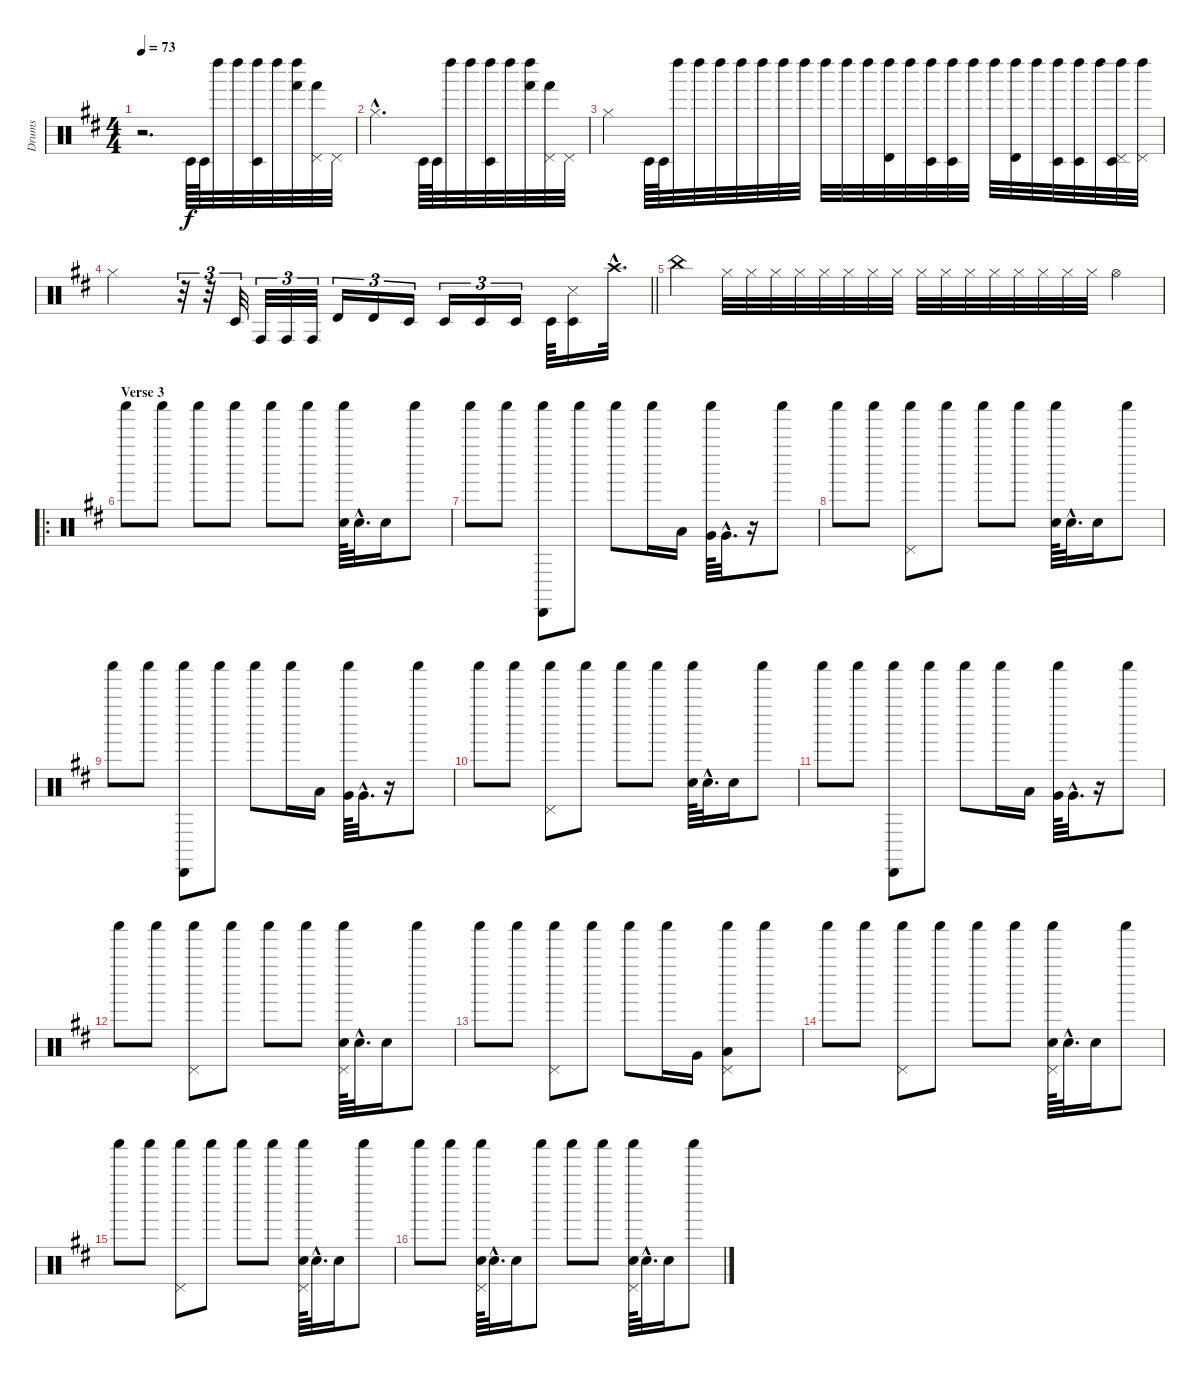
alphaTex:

\track ("Drums" "Drums") {instrument percussion}
\staff {score}
\articulation defaults
\ts (4 4)
\tempo 73
\clef neutral
\ks d
r.2{d dy f} "Timbale low (hit)".64 "Timbale low (hit)".64 "Left Maraca (hit)".32 "Left Maraca (hit)".32 ("Timbale low (hit)" "Left Maraca (hit)").32 "Left Maraca (hit)".32 ("Hand (hit)" "Left Maraca (hit)").32 ("Pedal Hi-Hat (hit)" "Hand (hit)").32 "Pedal Hi-Hat (hit)".32 |
"Hi-Hat (closed)"{hac}.2{d} "Timbale low (hit)".64 "Timbale low (hit)".64 "Left Maraca (hit)".32 "Left Maraca (hit)".32 ("Timbale low (hit)" "Left Maraca (hit)").32 "Left Maraca (hit)".32 ("Hand (hit)" "Left Maraca (hit)").32 ("Pedal Hi-Hat (hit)" "Hand (hit)").32 "Pedal Hi-Hat (hit)".32 |
"Hi-Hat (closed)".4 "Timbale low (hit)".64 "Timbale low (hit)".64 "Left Maraca (hit)".32 "Left Maraca (hit)".32 "Left Maraca (hit)".32 "Left Maraca (hit)".32 "Left Maraca (hit)".32 "Left Maraca (hit)".32 "Left Maraca (hit)".32 "Left Maraca (hit)".32 "Left Maraca (hit)".32 "Left Maraca (hit)".32 ("Timbale high (hit)" "Left Maraca (hit)").32 "Left Maraca (hit)".32 ("Timbale low (hit)" "Left Maraca (hit)").32 ("Timbale low (hit)" "Left Maraca (hit)").32 "Left Maraca (hit)".32 "Left Maraca (hit)".32 ("Timbale high (hit)" "Left Maraca (hit)").32 "Left Maraca (hit)".32 ("Timbale low (hit)" "Left Maraca (hit)").32 ("Timbale low (hit)" "Left Maraca (hit)").32 "Left Maraca (hit)".32 ("Pedal Hi-Hat (hit)" "Timbale low (hit)" "Left Maraca (hit)").32 ("Pedal Hi-Hat (hit)" "Left Maraca (hit)").32 |
\barLineRight lightlight "Hi-Hat (closed)".2
r.32{tu (3 2)} r.32{tu (3 2)} "Timbale low (hit)".32{tu (3 2)} "Conga high (hit)".32{tu (3 2)} "Conga high (hit)".32{tu (3 2)} "Conga high (hit)".32{tu (3 2)} "Timbale high (hit)".16{tu (3 2)} "Timbale high (hit)".16{tu (3 2)} "Timbale low (hit)".16{tu (3 2)} "Timbale low (hit)".16{tu (3 2)} "Timbale low (hit)".16{tu (3 2)} "Timbale low (hit)".16{tu (3 2)} "Timbale low (hit)".64 ("Metronome (hit)" "Timbale low (hit)").16 "Crash high (hit)"{hac}.32{d} |
"China (hit)".4 "Hi-Hat (closed)".32{volume 6} "Hi-Hat (closed)".32{volume 12} "Hi-Hat (closed)".32 "Hi-Hat (closed)".32 "Hi-Hat (closed)".32 "Hi-Hat (closed)".32 "Hi-Hat (closed)".32 "Hi-Hat (closed)".32 "Hi-Hat (closed)".32 "Hi-Hat (closed)".32 "Hi-Hat (closed)".32 "Hi-Hat (closed)".32 "Hi-Hat (closed)".32 "Hi-Hat (closed)".32 "Hi-Hat (closed)".32 "Hi-Hat (closed)".32 "Hi-Hat (open)".4{volume 14} |
\ro
\section ("" "Verse 3")
"Shaker (hit)".8 "Shaker (hit)".8 "Shaker (hit)".8 "Shaker (hit)".8 "Shaker (hit)".8 "Shaker (hit)".8 ("Shaker (hit)" "Electric Snare (hit)").64 "Electric Snare (hit)"{hac}.32{d} "Electric Snare (hit)".16 "Shaker (hit)".8 |
"Shaker (hit)".8 "Shaker (hit)".8 ("Cabasa (hit)" "Shaker (hit)").8 "Shaker (hit)".8 "Shaker (hit)".8 "Shaker (hit)".16 "Low Tom (hit)".16 ("Shaker (hit)" "Very Low Tom (hit)").64 "Very Low Tom (hit)"{hac}.32{d} r.16 "Shaker (hit)".8 |
"Shaker (hit)".8 "Shaker (hit)".8 ("Shaker (hit)" "Pedal Hi-Hat (hit)").8 "Shaker (hit)".8 "Shaker (hit)".8 "Shaker (hit)".8 ("Shaker (hit)" "Electric Snare (hit)").64 "Electric Snare (hit)"{hac}.32{d} "Electric Snare (hit)".16 "Shaker (hit)".8 |
"Shaker (hit)".8 "Shaker (hit)".8 ("Cabasa (hit)" "Shaker (hit)").8 "Shaker (hit)".8 "Shaker (hit)".8 "Shaker (hit)".16 "Low Tom (hit)".16 ("Shaker (hit)" "Very Low Tom (hit)").64 "Very Low Tom (hit)"{hac}.32{d} r.16 "Shaker (hit)".8 |
"Shaker (hit)".8 "Shaker (hit)".8 ("Shaker (hit)" "Pedal Hi-Hat (hit)").8 "Shaker (hit)".8 "Shaker (hit)".8 "Shaker (hit)".8 ("Shaker (hit)" "Electric Snare (hit)").64 "Electric Snare (hit)"{hac}.32{d} "Electric Snare (hit)".16 "Shaker (hit)".8 |
"Shaker (hit)".8 "Shaker (hit)".8 ("Cabasa (hit)" "Shaker (hit)").8 "Shaker (hit)".8 "Shaker (hit)".8 "Shaker (hit)".16 "Low Tom (hit)".16 ("Shaker (hit)" "Very Low Tom (hit)").64 "Very Low Tom (hit)"{hac}.32{d} r.16 "Shaker (hit)".8 |
"Shaker (hit)".8 "Shaker (hit)".8 ("Shaker (hit)" "Pedal Hi-Hat (hit)").8 "Shaker (hit)".8 "Shaker (hit)".8 "Shaker (hit)".8 ("Shaker (hit)" "Electric Snare (hit)" "Pedal Hi-Hat (hit)").64 "Electric Snare (hit)"{hac}.32{d} "Electric Snare (hit)".16 "Shaker (hit)".8 |
"Shaker (hit)".8 "Shaker (hit)".8 ("Shaker (hit)" "Pedal Hi-Hat (hit)").8 "Shaker (hit)".8 "Shaker (hit)".8 "Shaker (hit)".16 "Very Low Tom (hit)".16 ("Shaker (hit)" "Pedal Hi-Hat (hit)" "Low Floor Tom (hit)").8 "Shaker (hit)".8 |
"Shaker (hit)".8 "Shaker (hit)".8 ("Shaker (hit)" "Pedal Hi-Hat (hit)").8 "Shaker (hit)".8 "Shaker (hit)".8 "Shaker (hit)".8 ("Shaker (hit)" "Electric Snare (hit)" "Pedal Hi-Hat (hit)").64 "Electric Snare (hit)"{hac}.32{d} "Electric Snare (hit)".16 "Shaker (hit)".8 |
"Shaker (hit)".8 "Shaker (hit)".8 ("Shaker (hit)" "Pedal Hi-Hat (hit)").8 "Shaker (hit)".8 "Shaker (hit)".8 "Shaker (hit)".8 ("Shaker (hit)" "Electric Snare (hit)" "Pedal Hi-Hat (hit)").64 "Electric Snare (hit)"{hac}.32{d} "Electric Snare (hit)".16 "Shaker (hit)".8 |
"Shaker (hit)".8 "Shaker (hit)".8 ("Shaker (hit)" "Electric Snare (hit)" "Pedal Hi-Hat (hit)").64 "Electric Snare (hit)"{hac}.32{d} "Electric Snare (hit)".16 "Shaker (hit)".8 "Shaker (hit)".8 "Shaker (hit)".8 ("Shaker (hit)" "Electric Snare (hit)" "Pedal Hi-Hat (hit)").64 "Electric Snare (hit)"{hac}.32{d} "Electric Snare (hit)".16 "Shaker (hit)".8
